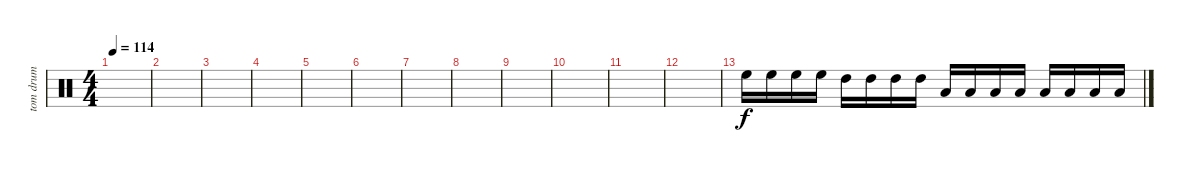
\track ("tom drum" "tom drum") {instrument percussion}
\staff {score}
\articulation defaults
\ts (4 4)
\tempo 114
\clef neutral
\ks c
|
|
|
|
|
|
|
|
|
|
|
|
"High Floor Tom (hit)".16 "High Floor Tom (hit)".16 "High Floor Tom (hit)".16 "High Floor Tom (hit)".16 "High Tom (hit)".16 "High Tom (hit)".16 "High Tom (hit)".16 "High Tom (hit)".16 "Low Tom (hit)".16 "Low Tom (hit)".16 "Low Tom (hit)".16 "Low Tom (hit)".16 "Low Tom (hit)".16 "Low Tom (hit)".16 "Low Tom (hit)".16 "Low Tom (hit)".16
